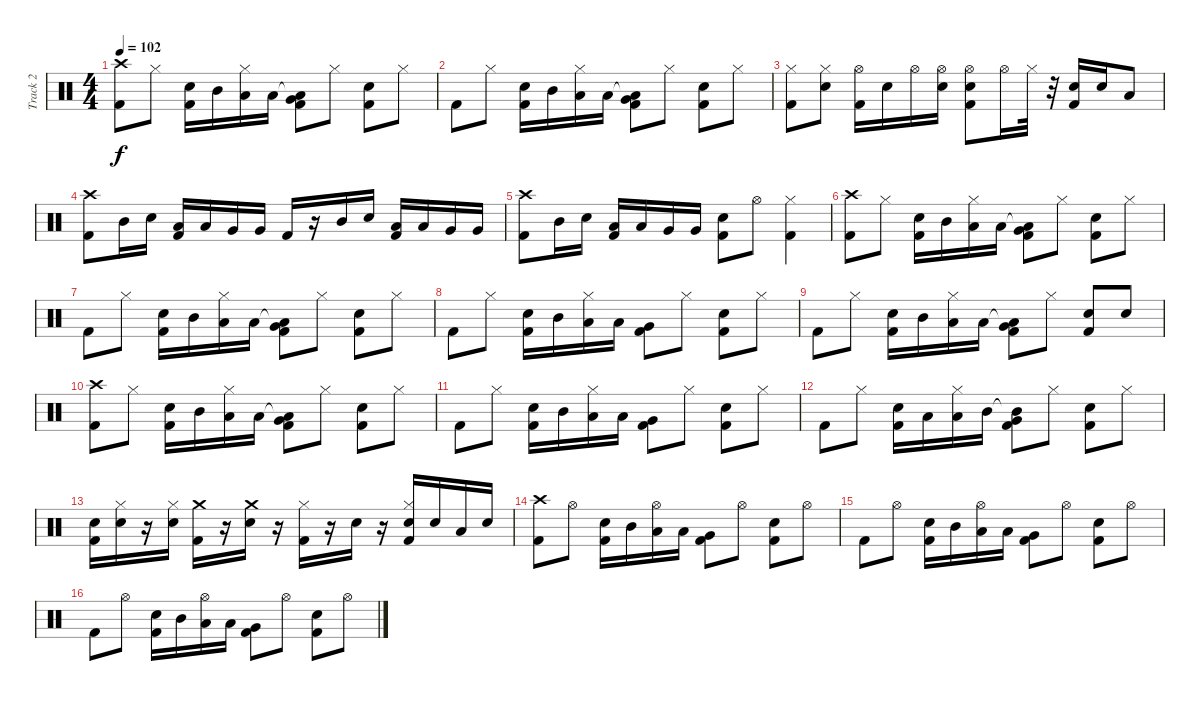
\track ("Track 2" "Track 2") {instrument percussion}
\staff {score}
\articulation defaults
\ts (4 4)
\tempo 102
\clef neutral
\ks c
("Crash high (hit)" "Kick (hit) 2").8{dy f} "Hi-Hat (closed)".8 ("Electric Snare (hit)" "Kick (hit) 2").16 "Mid Tom (hit)".16 ("Hi-Hat (closed)" "Low Tom (hit)").16 "Low Tom (hit)".16 ("Low Tom (hit)"{t} "Very Low Tom (hit)" "Kick (hit) 2").8 "Hi-Hat (closed)".8 ("Electric Snare (hit)" "Kick (hit) 2").8 "Hi-Hat (closed)".8 |
"Kick (hit) 2".8 "Hi-Hat (closed)".8 ("Electric Snare (hit)" "Kick (hit) 2").16 "Mid Tom (hit)".16 ("Hi-Hat (closed)" "Low Tom (hit)").16 "Low Tom (hit)".16 ("Low Tom (hit)"{t} "Very Low Tom (hit)" "Kick (hit) 2").8 "Hi-Hat (closed)".8 ("Electric Snare (hit)" "Kick (hit) 2").8 "Hi-Hat (closed)".8 |
("Hi-Hat (closed)" "Kick (hit) 2").8 ("Hi-Hat (closed)" "Electric Snare (hit)").8 ("Hi-Hat (open)" "Kick (hit) 2").16 "Electric Snare (hit)".16 "Hi-Hat (open)".16 ("Hi-Hat (open)" "Electric Snare (hit)").16 ("Hi-Hat (open)" "Electric Snare (hit)" "Kick (hit) 2").8 "Hi-Hat (open)".16 "Hi-Hat (closed)".32 r.32 ("Electric Snare (hit)" "Kick (hit) 2").16 "Electric Snare (hit)".16 "Low Tom (hit)".8 |
("Crash high (hit)" "Kick (hit) 2").8 "Mid Tom (hit)".16 "Electric Snare (hit)".16 ("Low Tom (hit)" "Kick (hit) 2").16 "Low Tom (hit)".16 "Very Low Tom (hit)".16 "Very Low Tom (hit)".16 "Kick (hit) 2".16 r.16 "Mid Tom (hit)".16 "Electric Snare (hit)".16 ("Low Tom (hit)" "Kick (hit) 2").16 "Low Tom (hit)".16 "Very Low Tom (hit)".16 "Very Low Tom (hit)".16 |
("Crash high (hit)" "Kick (hit) 2").8 "Mid Tom (hit)".16 "Electric Snare (hit)".16 ("Low Tom (hit)" "Kick (hit) 2").16 "Low Tom (hit)".16 "Very Low Tom (hit)".16 "Very Low Tom (hit)".16 ("Electric Snare (hit)" "Kick (hit) 2").8 "Hi-Hat (open)".8 ("Hi-Hat (closed)" "Kick (hit) 2").4 |
("Crash high (hit)" "Kick (hit) 2").8 "Hi-Hat (closed)".8 ("Electric Snare (hit)" "Kick (hit) 2").16 "Mid Tom (hit)".16 ("Hi-Hat (closed)" "Low Tom (hit)").16 "Low Tom (hit)".16 ("Low Tom (hit)"{t} "Very Low Tom (hit)" "Kick (hit) 2").8 "Hi-Hat (closed)".8 ("Electric Snare (hit)" "Kick (hit) 2").8 "Hi-Hat (closed)".8 |
"Kick (hit) 2".8 "Hi-Hat (closed)".8 ("Electric Snare (hit)" "Kick (hit) 2").16 "Mid Tom (hit)".16 ("Hi-Hat (closed)" "Low Tom (hit)").16 "Low Tom (hit)".16 ("Low Tom (hit)"{t} "Very Low Tom (hit)" "Kick (hit) 2").8 "Hi-Hat (closed)".8 ("Electric Snare (hit)" "Kick (hit) 2").8 "Hi-Hat (closed)".8 |
"Kick (hit) 2".8 "Hi-Hat (closed)".8 ("Electric Snare (hit)" "Kick (hit) 2").16 "Mid Tom (hit)".16 ("Hi-Hat (closed)" "Low Tom (hit)").16 "Low Tom (hit)".16 ("Very Low Tom (hit)" "Kick (hit) 2").8 "Hi-Hat (closed)".8 ("Electric Snare (hit)" "Kick (hit) 2").8 "Hi-Hat (closed)".8 |
"Kick (hit) 2".8 "Hi-Hat (closed)".8 ("Electric Snare (hit)" "Kick (hit) 2").16 "Mid Tom (hit)".16 ("Hi-Hat (closed)" "Low Tom (hit)").16 "Low Tom (hit)".16 ("Low Tom (hit)"{t} "Very Low Tom (hit)" "Kick (hit) 2").8 "Hi-Hat (closed)".8 ("Electric Snare (hit)" "Kick (hit) 2").8 "Electric Snare (hit)".8 |
("Crash high (hit)" "Kick (hit) 2").8 "Hi-Hat (closed)".8 ("Electric Snare (hit)" "Kick (hit) 2").16 "Mid Tom (hit)".16 ("Hi-Hat (closed)" "Low Tom (hit)").16 "Low Tom (hit)".16 ("Low Tom (hit)"{t} "Very Low Tom (hit)" "Kick (hit) 2").8 "Hi-Hat (closed)".8 ("Electric Snare (hit)" "Kick (hit) 2").8 "Hi-Hat (closed)".8 |
"Kick (hit) 2".8 "Hi-Hat (closed)".8 ("Electric Snare (hit)" "Kick (hit) 2").16 "Mid Tom (hit)".16 ("Hi-Hat (closed)" "Low Tom (hit)").16 "Low Tom (hit)".16 ("Very Low Tom (hit)" "Kick (hit) 2").8 "Hi-Hat (closed)".8 ("Electric Snare (hit)" "Kick (hit) 2").8 "Hi-Hat (closed)".8 |
"Kick (hit) 2".8 "Hi-Hat (closed)".8 ("Electric Snare (hit)" "Kick (hit) 2").16 "Low Tom (hit)".16 ("Hi-Hat (closed)" "Low Tom (hit)").16 "Mid Tom (hit)".16 ("Mid Tom (hit)"{t} "Very Low Tom (hit)" "Kick (hit) 2").8 "Hi-Hat (closed)".8 ("Electric Snare (hit)" "Kick (hit) 2").8 "Hi-Hat (closed)".8 |
("Electric Snare (hit)" "Kick (hit) 2").16 ("Hi-Hat (closed)" "Electric Snare (hit)").16 r.16 ("Hi-Hat (closed)" "Electric Snare (hit)").16 ("Crash medium (hit)" "Kick (hit) 2").16 r.16 ("Crash medium (hit)" "Electric Snare (hit)").16 r.16 ("Hi-Hat (closed)" "Kick (hit) 2").16 r.16 "Electric Snare (hit)".16 r.16 ("Hi-Hat (closed)" "Electric Snare (hit)" "Kick (hit) 2").16 "Electric Snare (hit)".16 "Low Tom (hit)".16 "Electric Snare (hit)".16 |
("Crash high (hit)" "Kick (hit) 2").8 "Hi-Hat (open)".8 ("Electric Snare (hit)" "Kick (hit) 2").16 "Mid Tom (hit)".16 ("Hi-Hat (open)" "Low Tom (hit)").16 "Low Tom (hit)".16 ("Very Low Tom (hit)" "Kick (hit) 2").8 "Hi-Hat (open)".8 ("Electric Snare (hit)" "Kick (hit) 2").8 "Hi-Hat (open)".8 |
"Kick (hit) 2".8 "Hi-Hat (open)".8 ("Electric Snare (hit)" "Kick (hit) 2").16 "Mid Tom (hit)".16 ("Hi-Hat (open)" "Low Tom (hit)").16 "Low Tom (hit)".16 ("Very Low Tom (hit)" "Kick (hit) 2").8 "Hi-Hat (open)".8 ("Electric Snare (hit)" "Kick (hit) 2").8 "Hi-Hat (open)".8 |
"Kick (hit) 2".8 "Hi-Hat (open)".8 ("Electric Snare (hit)" "Kick (hit) 2").16 "Mid Tom (hit)".16 ("Hi-Hat (open)" "Low Tom (hit)").16 "Low Tom (hit)".16 ("Very Low Tom (hit)" "Kick (hit) 2").8 "Hi-Hat (open)".8 ("Electric Snare (hit)" "Kick (hit) 2").8 "Hi-Hat (open)".8
